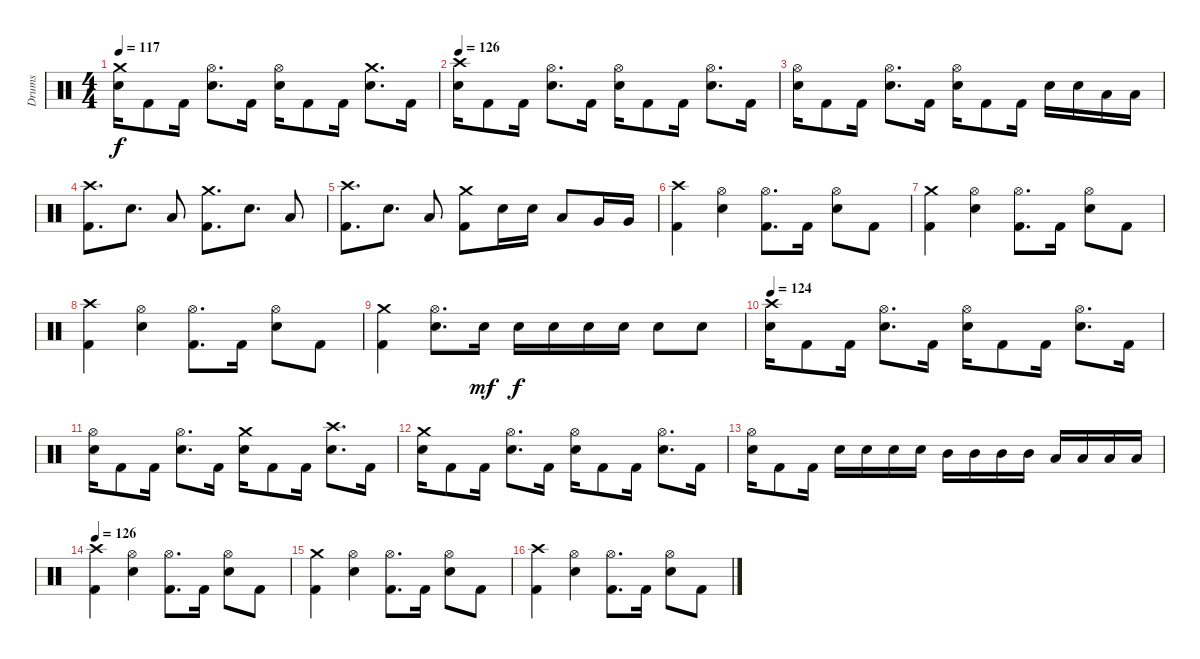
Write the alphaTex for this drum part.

\track ("Drums" "Drums") {instrument percussion}
\staff {score}
\articulation defaults
\ts (4 4)
\tempo 117
\clef neutral
\ks c
("Crash medium (hit)" "Snare (hit) 2").16{dy f} "Kick (hit) 2".8 "Kick (hit) 2".16 ("Hi-Hat (open)" "Snare (hit) 2").8{d} "Kick (hit) 2".16 ("Hi-Hat (open)" "Snare (hit) 2").16 "Kick (hit) 2".8 "Kick (hit) 2".16 ("Crash medium (hit)" "Snare (hit) 2").8{d} "Kick (hit) 2".16 |
\tempo 126
("Crash high (hit)" "Snare (hit) 2").16 "Kick (hit) 2".8 "Kick (hit) 2".16 ("Hi-Hat (open)" "Snare (hit) 2").8{d} "Kick (hit) 2".16 ("Hi-Hat (open)" "Snare (hit) 2").16 "Kick (hit) 2".8 "Kick (hit) 2".16 ("Hi-Hat (open)" "Snare (hit) 2").8{d} "Kick (hit) 2".16 |
("Hi-Hat (open)" "Snare (hit) 2").16 "Kick (hit) 2".8 "Kick (hit) 2".16 ("Hi-Hat (open)" "Snare (hit) 2").8{d} "Kick (hit) 2".16 ("Hi-Hat (open)" "Snare (hit) 2").16 "Kick (hit) 2".8 "Kick (hit) 2".16 "Snare (hit) 2".16 "Snare (hit) 2".16 "Low Tom (hit)".16 "Low Tom (hit)".16 |
("Crash high (hit)" "Kick (hit) 2").8{d} "Snare (hit) 2".8{d} "Low Tom (hit)".8 ("Crash medium (hit)" "Kick (hit) 2").8{d} "Snare (hit) 2".8{d} "Low Tom (hit)".8 |
("Crash high (hit)" "Kick (hit) 2").8{d} "Snare (hit) 2".8{d} "Low Tom (hit)".8 ("Crash medium (hit)" "Kick (hit) 2").8 "Snare (hit) 2".16 "Snare (hit) 2".16 "Low Tom (hit)".8 "Very Low Tom (hit)".16 "Very Low Tom (hit)".16 |
("Crash high (hit)" "Kick (hit) 2").4 ("Hi-Hat (open)" "Snare (hit) 2").4 ("Hi-Hat (open)" "Kick (hit) 2").8{d} "Kick (hit) 2".16 ("Hi-Hat (open)" "Snare (hit) 2").8 "Kick (hit) 2".8 |
("Crash medium (hit)" "Kick (hit) 2").4 ("Hi-Hat (open)" "Snare (hit) 2").4 ("Hi-Hat (open)" "Kick (hit) 2").8{d} "Kick (hit) 2".16 ("Hi-Hat (open)" "Snare (hit) 2").8 "Kick (hit) 2".8 |
("Crash high (hit)" "Kick (hit) 2").4 ("Hi-Hat (open)" "Snare (hit) 2").4 ("Hi-Hat (open)" "Kick (hit) 2").8{d} "Kick (hit) 2".16 ("Hi-Hat (open)" "Snare (hit) 2").8 "Kick (hit) 2".8 |
("Crash medium (hit)" "Kick (hit) 2").4 ("Hi-Hat (open)" "Snare (hit) 2").8{d} "Snare (hit) 2".16{dy mf} "Snare (hit) 2".16{dy f} "Snare (hit) 2".16 "Snare (hit) 2".16 "Snare (hit) 2".16 "Snare (hit) 2".8 "Snare (hit) 2".8 |
\tempo 124
("Crash high (hit)" "Snare (hit) 2").16 "Kick (hit) 2".8 "Kick (hit) 2".16 ("Hi-Hat (open)" "Snare (hit) 2").8{d} "Kick (hit) 2".16 ("Hi-Hat (open)" "Snare (hit) 2").16 "Kick (hit) 2".8 "Kick (hit) 2".16 ("Hi-Hat (open)" "Snare (hit) 2").8{d} "Kick (hit) 2".16 |
("Hi-Hat (open)" "Snare (hit) 2").16 "Kick (hit) 2".8 "Kick (hit) 2".16 ("Hi-Hat (open)" "Snare (hit) 2").8{d} "Kick (hit) 2".16 ("Crash medium (hit)" "Snare (hit) 2").16 "Kick (hit) 2".8 "Kick (hit) 2".16 ("Crash high (hit)" "Snare (hit) 2").8{d} "Kick (hit) 2".16 |
("Crash medium (hit)" "Snare (hit) 2").16 "Kick (hit) 2".8 "Kick (hit) 2".16 ("Hi-Hat (open)" "Snare (hit) 2").8{d} "Kick (hit) 2".16 ("Hi-Hat (open)" "Snare (hit) 2").16 "Kick (hit) 2".8 "Kick (hit) 2".16 ("Hi-Hat (open)" "Snare (hit) 2").8{d} "Kick (hit) 2".16 |
("Hi-Hat (open)" "Snare (hit) 2").16 "Kick (hit) 2".8 "Kick (hit) 2".16 "Snare (hit) 2".16 "Snare (hit) 2".16 "Snare (hit) 2".16 "Snare (hit) 2".16 "Mid Tom (hit)".16 "Mid Tom (hit)".16 "Mid Tom (hit)".16 "Mid Tom (hit)".16 "Low Tom (hit)".16 "Low Tom (hit)".16 "Low Tom (hit)".16 "Low Tom (hit)".16 |
\tempo 126
("Crash high (hit)" "Kick (hit) 2").4 ("Hi-Hat (open)" "Snare (hit) 2").4 ("Hi-Hat (open)" "Kick (hit) 2").8{d} "Kick (hit) 2".16 ("Hi-Hat (open)" "Snare (hit) 2").8 "Kick (hit) 2".8 |
("Crash medium (hit)" "Kick (hit) 2").4 ("Hi-Hat (open)" "Snare (hit) 2").4 ("Hi-Hat (open)" "Kick (hit) 2").8{d} "Kick (hit) 2".16 ("Hi-Hat (open)" "Snare (hit) 2").8 "Kick (hit) 2".8 |
("Crash high (hit)" "Kick (hit) 2").4 ("Hi-Hat (open)" "Snare (hit) 2").4 ("Hi-Hat (open)" "Kick (hit) 2").8{d} "Kick (hit) 2".16 ("Hi-Hat (open)" "Snare (hit) 2").8 "Kick (hit) 2".8
